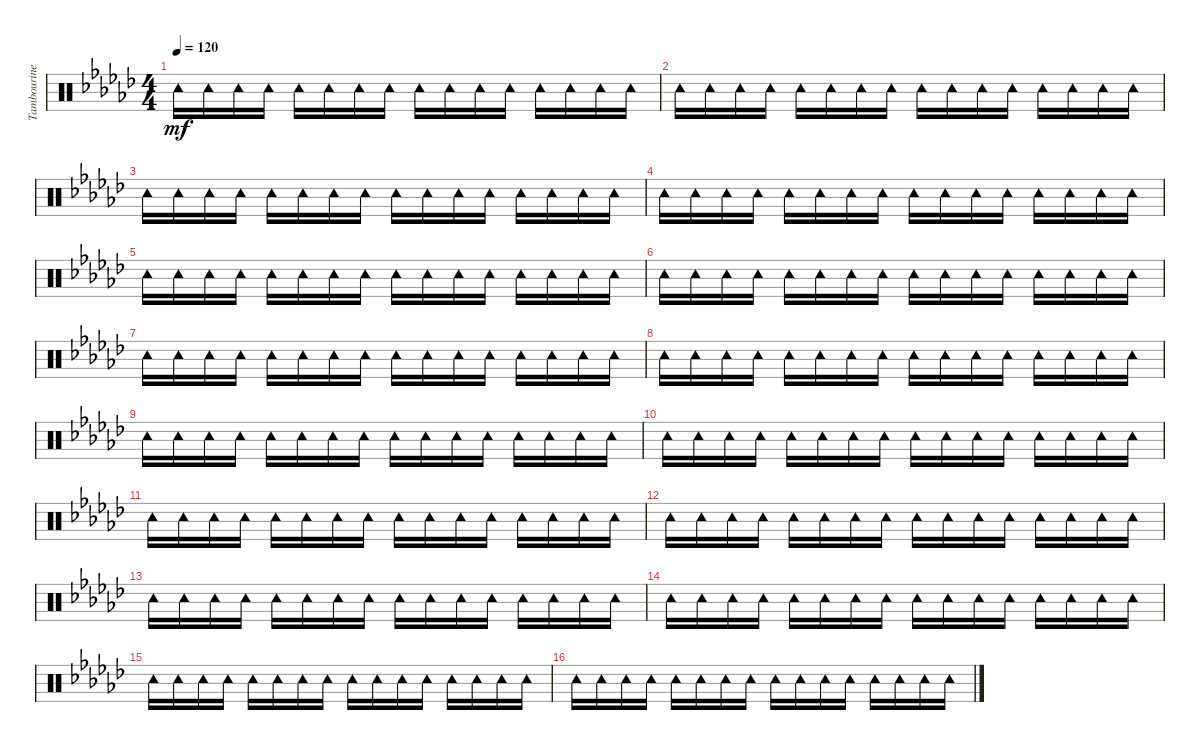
\track ("Tambourine" "Tambourine") {instrument percussion}
\staff {score}
\articulation defaults
\ts (4 4)
\tempo 120
\clef neutral
\ks ebminor "Tambourine (hit)".16{dy mf} "Tambourine (hit)".16 "Tambourine (hit)".16 "Tambourine (hit)".16 "Tambourine (hit)".16 "Tambourine (hit)".16 "Tambourine (hit)".16 "Tambourine (hit)".16 "Tambourine (hit)".16 "Tambourine (hit)".16 "Tambourine (hit)".16 "Tambourine (hit)".16 "Tambourine (hit)".16 "Tambourine (hit)".16 "Tambourine (hit)".16 "Tambourine (hit)".16
|
"Tambourine (hit)".16 "Tambourine (hit)".16 "Tambourine (hit)".16 "Tambourine (hit)".16 "Tambourine (hit)".16 "Tambourine (hit)".16 "Tambourine (hit)".16 "Tambourine (hit)".16 "Tambourine (hit)".16 "Tambourine (hit)".16 "Tambourine (hit)".16 "Tambourine (hit)".16 "Tambourine (hit)".16 "Tambourine (hit)".16 "Tambourine (hit)".16 "Tambourine (hit)".16 |
"Tambourine (hit)".16 "Tambourine (hit)".16 "Tambourine (hit)".16 "Tambourine (hit)".16 "Tambourine (hit)".16 "Tambourine (hit)".16 "Tambourine (hit)".16 "Tambourine (hit)".16 "Tambourine (hit)".16 "Tambourine (hit)".16 "Tambourine (hit)".16 "Tambourine (hit)".16 "Tambourine (hit)".16 "Tambourine (hit)".16 "Tambourine (hit)".16 "Tambourine (hit)".16 |
"Tambourine (hit)".16 "Tambourine (hit)".16 "Tambourine (hit)".16 "Tambourine (hit)".16 "Tambourine (hit)".16 "Tambourine (hit)".16 "Tambourine (hit)".16 "Tambourine (hit)".16 "Tambourine (hit)".16 "Tambourine (hit)".16 "Tambourine (hit)".16 "Tambourine (hit)".16 "Tambourine (hit)".16 "Tambourine (hit)".16 "Tambourine (hit)".16 "Tambourine (hit)".16 |
"Tambourine (hit)".16 "Tambourine (hit)".16 "Tambourine (hit)".16 "Tambourine (hit)".16 "Tambourine (hit)".16 "Tambourine (hit)".16 "Tambourine (hit)".16 "Tambourine (hit)".16 "Tambourine (hit)".16 "Tambourine (hit)".16 "Tambourine (hit)".16 "Tambourine (hit)".16 "Tambourine (hit)".16 "Tambourine (hit)".16 "Tambourine (hit)".16 "Tambourine (hit)".16 |
"Tambourine (hit)".16 "Tambourine (hit)".16 "Tambourine (hit)".16 "Tambourine (hit)".16 "Tambourine (hit)".16 "Tambourine (hit)".16 "Tambourine (hit)".16 "Tambourine (hit)".16 "Tambourine (hit)".16 "Tambourine (hit)".16 "Tambourine (hit)".16 "Tambourine (hit)".16 "Tambourine (hit)".16 "Tambourine (hit)".16 "Tambourine (hit)".16 "Tambourine (hit)".16 |
"Tambourine (hit)".16 "Tambourine (hit)".16 "Tambourine (hit)".16 "Tambourine (hit)".16 "Tambourine (hit)".16 "Tambourine (hit)".16 "Tambourine (hit)".16 "Tambourine (hit)".16 "Tambourine (hit)".16 "Tambourine (hit)".16 "Tambourine (hit)".16 "Tambourine (hit)".16 "Tambourine (hit)".16 "Tambourine (hit)".16 "Tambourine (hit)".16 "Tambourine (hit)".16 |
"Tambourine (hit)".16 "Tambourine (hit)".16 "Tambourine (hit)".16 "Tambourine (hit)".16 "Tambourine (hit)".16 "Tambourine (hit)".16 "Tambourine (hit)".16 "Tambourine (hit)".16 "Tambourine (hit)".16 "Tambourine (hit)".16 "Tambourine (hit)".16 "Tambourine (hit)".16 "Tambourine (hit)".16 "Tambourine (hit)".16 "Tambourine (hit)".16 "Tambourine (hit)".16 |
"Tambourine (hit)".16 "Tambourine (hit)".16 "Tambourine (hit)".16 "Tambourine (hit)".16 "Tambourine (hit)".16 "Tambourine (hit)".16 "Tambourine (hit)".16 "Tambourine (hit)".16 "Tambourine (hit)".16 "Tambourine (hit)".16 "Tambourine (hit)".16 "Tambourine (hit)".16 "Tambourine (hit)".16 "Tambourine (hit)".16 "Tambourine (hit)".16 "Tambourine (hit)".16 |
"Tambourine (hit)".16 "Tambourine (hit)".16 "Tambourine (hit)".16 "Tambourine (hit)".16 "Tambourine (hit)".16 "Tambourine (hit)".16 "Tambourine (hit)".16 "Tambourine (hit)".16 "Tambourine (hit)".16 "Tambourine (hit)".16 "Tambourine (hit)".16 "Tambourine (hit)".16 "Tambourine (hit)".16 "Tambourine (hit)".16 "Tambourine (hit)".16 "Tambourine (hit)".16 |
"Tambourine (hit)".16 "Tambourine (hit)".16 "Tambourine (hit)".16 "Tambourine (hit)".16 "Tambourine (hit)".16 "Tambourine (hit)".16 "Tambourine (hit)".16 "Tambourine (hit)".16 "Tambourine (hit)".16 "Tambourine (hit)".16 "Tambourine (hit)".16 "Tambourine (hit)".16 "Tambourine (hit)".16 "Tambourine (hit)".16 "Tambourine (hit)".16 "Tambourine (hit)".16 |
"Tambourine (hit)".16 "Tambourine (hit)".16 "Tambourine (hit)".16 "Tambourine (hit)".16 "Tambourine (hit)".16 "Tambourine (hit)".16 "Tambourine (hit)".16 "Tambourine (hit)".16 "Tambourine (hit)".16 "Tambourine (hit)".16 "Tambourine (hit)".16 "Tambourine (hit)".16 "Tambourine (hit)".16 "Tambourine (hit)".16 "Tambourine (hit)".16 "Tambourine (hit)".16 |
"Tambourine (hit)".16 "Tambourine (hit)".16 "Tambourine (hit)".16 "Tambourine (hit)".16 "Tambourine (hit)".16 "Tambourine (hit)".16 "Tambourine (hit)".16 "Tambourine (hit)".16 "Tambourine (hit)".16 "Tambourine (hit)".16 "Tambourine (hit)".16 "Tambourine (hit)".16 "Tambourine (hit)".16 "Tambourine (hit)".16 "Tambourine (hit)".16 "Tambourine (hit)".16 |
"Tambourine (hit)".16 "Tambourine (hit)".16 "Tambourine (hit)".16 "Tambourine (hit)".16 "Tambourine (hit)".16 "Tambourine (hit)".16 "Tambourine (hit)".16 "Tambourine (hit)".16 "Tambourine (hit)".16 "Tambourine (hit)".16 "Tambourine (hit)".16 "Tambourine (hit)".16 "Tambourine (hit)".16 "Tambourine (hit)".16 "Tambourine (hit)".16 "Tambourine (hit)".16 |
"Tambourine (hit)".16 "Tambourine (hit)".16 "Tambourine (hit)".16 "Tambourine (hit)".16 "Tambourine (hit)".16 "Tambourine (hit)".16 "Tambourine (hit)".16 "Tambourine (hit)".16 "Tambourine (hit)".16 "Tambourine (hit)".16 "Tambourine (hit)".16 "Tambourine (hit)".16 "Tambourine (hit)".16 "Tambourine (hit)".16 "Tambourine (hit)".16 "Tambourine (hit)".16 |
"Tambourine (hit)".16 "Tambourine (hit)".16 "Tambourine (hit)".16 "Tambourine (hit)".16 "Tambourine (hit)".16 "Tambourine (hit)".16 "Tambourine (hit)".16 "Tambourine (hit)".16 "Tambourine (hit)".16 "Tambourine (hit)".16 "Tambourine (hit)".16 "Tambourine (hit)".16 "Tambourine (hit)".16 "Tambourine (hit)".16 "Tambourine (hit)".16 "Tambourine (hit)".16
